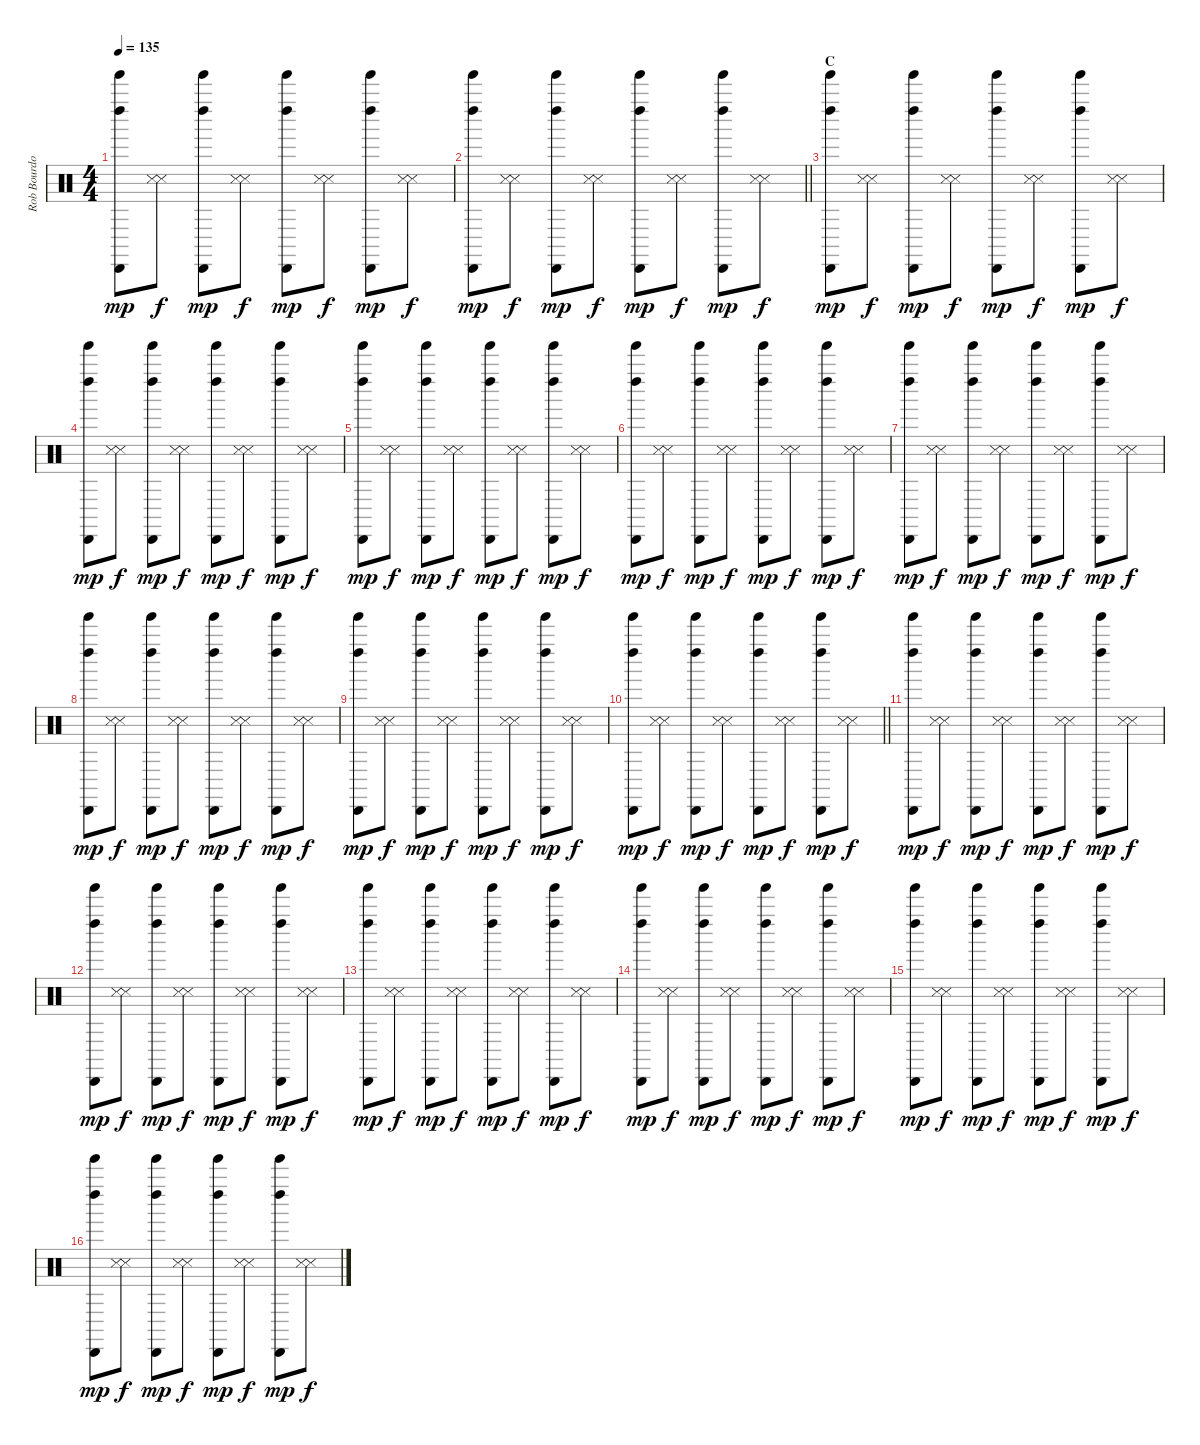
\track ("Rob Bourdon - Beats & Drums" "Rob Bourdo") {instrument percussion}
\staff {score}
\articulation defaults
\ts (4 4)
\tempo 135
\clef neutral
\ks c
("Tinkle Bell (hit)" "Cabasa (hit)" "Left Maraca (hit)").8{dy mp} ("Metronome (hit)" "Snare (side stick) 3").8{dy f} ("Tinkle Bell (hit)" "Cabasa (hit)" "Left Maraca (hit)").8{dy mp} ("Metronome (hit)" "Snare (side stick) 3").8{dy f} ("Tinkle Bell (hit)" "Cabasa (hit)" "Left Maraca (hit)").8{dy mp} ("Metronome (hit)" "Snare (side stick) 3").8{dy f} ("Tinkle Bell (hit)" "Cabasa (hit)" "Left Maraca (hit)").8{dy mp} ("Metronome (hit)" "Snare (side stick) 3").8{dy f} |
\barLineRight lightlight
("Tinkle Bell (hit)" "Cabasa (hit)" "Left Maraca (hit)").8{dy mp} ("Metronome (hit)" "Snare (side stick) 3").8{dy f} ("Tinkle Bell (hit)" "Cabasa (hit)" "Left Maraca (hit)").8{dy mp} ("Metronome (hit)" "Snare (side stick) 3").8{dy f} ("Tinkle Bell (hit)" "Cabasa (hit)" "Left Maraca (hit)").8{dy mp} ("Metronome (hit)" "Snare (side stick) 3").8{dy f} ("Tinkle Bell (hit)" "Cabasa (hit)" "Left Maraca (hit)").8{dy mp} ("Metronome (hit)" "Snare (side stick) 3").8{dy f} |
\section ("" "C")
("Tinkle Bell (hit)" "Cabasa (hit)" "Left Maraca (hit)").8{dy mp} ("Metronome (hit)" "Snare (side stick) 3").8{dy f} ("Tinkle Bell (hit)" "Cabasa (hit)" "Left Maraca (hit)").8{dy mp} ("Metronome (hit)" "Snare (side stick) 3").8{dy f} ("Tinkle Bell (hit)" "Cabasa (hit)" "Left Maraca (hit)").8{dy mp} ("Metronome (hit)" "Snare (side stick) 3").8{dy f} ("Tinkle Bell (hit)" "Cabasa (hit)" "Left Maraca (hit)").8{dy mp} ("Metronome (hit)" "Snare (side stick) 3").8{dy f} |
("Tinkle Bell (hit)" "Cabasa (hit)" "Left Maraca (hit)").8{dy mp} ("Metronome (hit)" "Snare (side stick) 3").8{dy f} ("Tinkle Bell (hit)" "Cabasa (hit)" "Left Maraca (hit)").8{dy mp} ("Metronome (hit)" "Snare (side stick) 3").8{dy f} ("Tinkle Bell (hit)" "Cabasa (hit)" "Left Maraca (hit)").8{dy mp} ("Metronome (hit)" "Snare (side stick) 3").8{dy f} ("Tinkle Bell (hit)" "Cabasa (hit)" "Left Maraca (hit)").8{dy mp} ("Metronome (hit)" "Snare (side stick) 3").8{dy f} |
("Tinkle Bell (hit)" "Cabasa (hit)" "Left Maraca (hit)").8{dy mp} ("Metronome (hit)" "Snare (side stick) 3").8{dy f} ("Tinkle Bell (hit)" "Cabasa (hit)" "Left Maraca (hit)").8{dy mp} ("Metronome (hit)" "Snare (side stick) 3").8{dy f} ("Tinkle Bell (hit)" "Cabasa (hit)" "Left Maraca (hit)").8{dy mp} ("Metronome (hit)" "Snare (side stick) 3").8{dy f} ("Tinkle Bell (hit)" "Cabasa (hit)" "Left Maraca (hit)").8{dy mp} ("Metronome (hit)" "Snare (side stick) 3").8{dy f} |
("Tinkle Bell (hit)" "Cabasa (hit)" "Left Maraca (hit)").8{dy mp} ("Metronome (hit)" "Snare (side stick) 3").8{dy f} ("Tinkle Bell (hit)" "Cabasa (hit)" "Left Maraca (hit)").8{dy mp} ("Metronome (hit)" "Snare (side stick) 3").8{dy f} ("Tinkle Bell (hit)" "Cabasa (hit)" "Left Maraca (hit)").8{dy mp} ("Metronome (hit)" "Snare (side stick) 3").8{dy f} ("Tinkle Bell (hit)" "Cabasa (hit)" "Left Maraca (hit)").8{dy mp} ("Metronome (hit)" "Snare (side stick) 3").8{dy f} |
("Tinkle Bell (hit)" "Cabasa (hit)" "Left Maraca (hit)").8{dy mp} ("Metronome (hit)" "Snare (side stick) 3").8{dy f} ("Tinkle Bell (hit)" "Cabasa (hit)" "Left Maraca (hit)").8{dy mp} ("Metronome (hit)" "Snare (side stick) 3").8{dy f} ("Tinkle Bell (hit)" "Cabasa (hit)" "Left Maraca (hit)").8{dy mp} ("Metronome (hit)" "Snare (side stick) 3").8{dy f} ("Tinkle Bell (hit)" "Cabasa (hit)" "Left Maraca (hit)").8{dy mp} ("Metronome (hit)" "Snare (side stick) 3").8{dy f} |
("Tinkle Bell (hit)" "Cabasa (hit)" "Left Maraca (hit)").8{dy mp} ("Metronome (hit)" "Snare (side stick) 3").8{dy f} ("Tinkle Bell (hit)" "Cabasa (hit)" "Left Maraca (hit)").8{dy mp} ("Metronome (hit)" "Snare (side stick) 3").8{dy f} ("Tinkle Bell (hit)" "Cabasa (hit)" "Left Maraca (hit)").8{dy mp} ("Metronome (hit)" "Snare (side stick) 3").8{dy f} ("Tinkle Bell (hit)" "Cabasa (hit)" "Left Maraca (hit)").8{dy mp} ("Metronome (hit)" "Snare (side stick) 3").8{dy f} |
("Tinkle Bell (hit)" "Cabasa (hit)" "Left Maraca (hit)").8{dy mp} ("Metronome (hit)" "Snare (side stick) 3").8{dy f} ("Tinkle Bell (hit)" "Cabasa (hit)" "Left Maraca (hit)").8{dy mp} ("Metronome (hit)" "Snare (side stick) 3").8{dy f} ("Tinkle Bell (hit)" "Cabasa (hit)" "Left Maraca (hit)").8{dy mp} ("Metronome (hit)" "Snare (side stick) 3").8{dy f} ("Tinkle Bell (hit)" "Cabasa (hit)" "Left Maraca (hit)").8{dy mp} ("Metronome (hit)" "Snare (side stick) 3").8{dy f} |
\barLineRight lightlight
("Tinkle Bell (hit)" "Cabasa (hit)" "Left Maraca (hit)").8{dy mp} ("Metronome (hit)" "Snare (side stick) 3").8{dy f} ("Tinkle Bell (hit)" "Cabasa (hit)" "Left Maraca (hit)").8{dy mp} ("Metronome (hit)" "Snare (side stick) 3").8{dy f} ("Tinkle Bell (hit)" "Cabasa (hit)" "Left Maraca (hit)").8{dy mp} ("Metronome (hit)" "Snare (side stick) 3").8{dy f} ("Tinkle Bell (hit)" "Cabasa (hit)" "Left Maraca (hit)").8{dy mp} ("Metronome (hit)" "Snare (side stick) 3").8{dy f} |
("Tinkle Bell (hit)" "Cabasa (hit)" "Left Maraca (hit)").8{dy mp} ("Metronome (hit)" "Snare (side stick) 3").8{dy f} ("Tinkle Bell (hit)" "Cabasa (hit)" "Left Maraca (hit)").8{dy mp} ("Metronome (hit)" "Snare (side stick) 3").8{dy f} ("Tinkle Bell (hit)" "Cabasa (hit)" "Left Maraca (hit)").8{dy mp} ("Metronome (hit)" "Snare (side stick) 3").8{dy f} ("Tinkle Bell (hit)" "Cabasa (hit)" "Left Maraca (hit)").8{dy mp} ("Metronome (hit)" "Snare (side stick) 3").8{dy f} |
("Tinkle Bell (hit)" "Cabasa (hit)" "Left Maraca (hit)").8{dy mp} ("Metronome (hit)" "Snare (side stick) 3").8{dy f} ("Tinkle Bell (hit)" "Cabasa (hit)" "Left Maraca (hit)").8{dy mp} ("Metronome (hit)" "Snare (side stick) 3").8{dy f} ("Tinkle Bell (hit)" "Cabasa (hit)" "Left Maraca (hit)").8{dy mp} ("Metronome (hit)" "Snare (side stick) 3").8{dy f} ("Tinkle Bell (hit)" "Cabasa (hit)" "Left Maraca (hit)").8{dy mp} ("Metronome (hit)" "Snare (side stick) 3").8{dy f} |
("Tinkle Bell (hit)" "Cabasa (hit)" "Left Maraca (hit)").8{dy mp} ("Metronome (hit)" "Snare (side stick) 3").8{dy f} ("Tinkle Bell (hit)" "Cabasa (hit)" "Left Maraca (hit)").8{dy mp} ("Metronome (hit)" "Snare (side stick) 3").8{dy f} ("Tinkle Bell (hit)" "Cabasa (hit)" "Left Maraca (hit)").8{dy mp} ("Metronome (hit)" "Snare (side stick) 3").8{dy f} ("Tinkle Bell (hit)" "Cabasa (hit)" "Left Maraca (hit)").8{dy mp} ("Metronome (hit)" "Snare (side stick) 3").8{dy f} |
("Tinkle Bell (hit)" "Cabasa (hit)" "Left Maraca (hit)").8{dy mp} ("Metronome (hit)" "Snare (side stick) 3").8{dy f} ("Tinkle Bell (hit)" "Cabasa (hit)" "Left Maraca (hit)").8{dy mp} ("Metronome (hit)" "Snare (side stick) 3").8{dy f} ("Tinkle Bell (hit)" "Cabasa (hit)" "Left Maraca (hit)").8{dy mp} ("Metronome (hit)" "Snare (side stick) 3").8{dy f} ("Tinkle Bell (hit)" "Cabasa (hit)" "Left Maraca (hit)").8{dy mp} ("Metronome (hit)" "Snare (side stick) 3").8{dy f} |
("Tinkle Bell (hit)" "Cabasa (hit)" "Left Maraca (hit)").8{dy mp} ("Metronome (hit)" "Snare (side stick) 3").8{dy f} ("Tinkle Bell (hit)" "Cabasa (hit)" "Left Maraca (hit)").8{dy mp} ("Metronome (hit)" "Snare (side stick) 3").8{dy f} ("Tinkle Bell (hit)" "Cabasa (hit)" "Left Maraca (hit)").8{dy mp} ("Metronome (hit)" "Snare (side stick) 3").8{dy f} ("Tinkle Bell (hit)" "Cabasa (hit)" "Left Maraca (hit)").8{dy mp} ("Metronome (hit)" "Snare (side stick) 3").8{dy f} |
("Tinkle Bell (hit)" "Cabasa (hit)" "Left Maraca (hit)").8{dy mp} ("Metronome (hit)" "Snare (side stick) 3").8{dy f} ("Tinkle Bell (hit)" "Cabasa (hit)" "Left Maraca (hit)").8{dy mp} ("Metronome (hit)" "Snare (side stick) 3").8{dy f} ("Tinkle Bell (hit)" "Cabasa (hit)" "Left Maraca (hit)").8{dy mp} ("Metronome (hit)" "Snare (side stick) 3").8{dy f} ("Tinkle Bell (hit)" "Cabasa (hit)" "Left Maraca (hit)").8{dy mp} ("Metronome (hit)" "Snare (side stick) 3").8{dy f}
